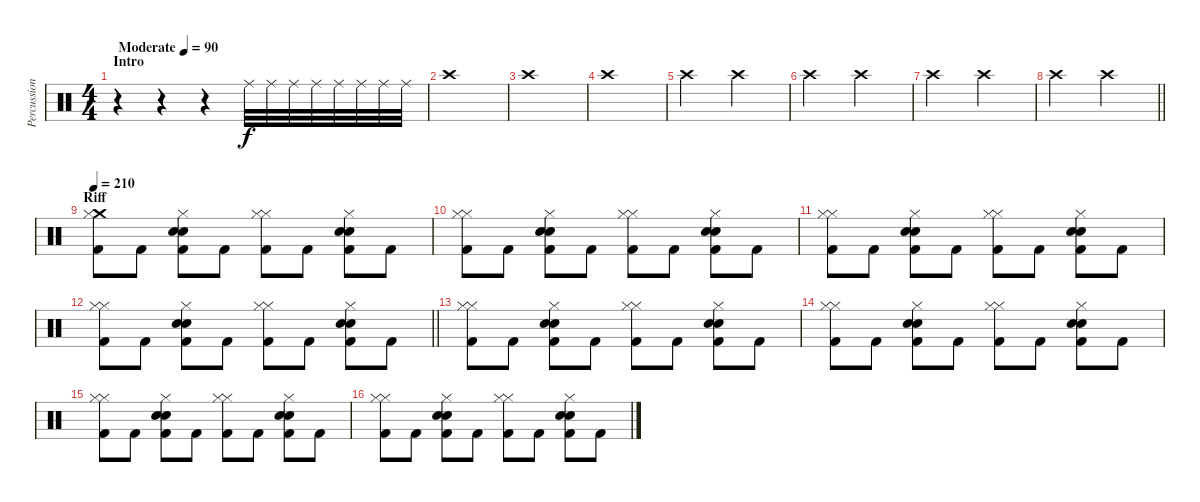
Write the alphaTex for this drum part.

\track ("Percussion" "Percussion") {instrument percussion}
\staff {score}
\articulation defaults
\ts (4 4)
\section ("" "Intro")
\tempo (90 "Moderate")
\clef neutral
\ks c
r.4{dy f} r.4 r.4 "Ride (middle)".32 "Ride (middle)".32 "Ride (middle)".32 "Ride (middle)".32 "Ride (middle)".32 "Ride (middle)".32 "Ride (middle)".32 "Ride (middle)".32 |
"Crash high (hit)".1 |
"Crash high (hit)".1 |
"Crash high (hit)".1 |
"Crash high (hit)".2 "Crash high (hit)".2 |
"Crash high (hit)".2 "Crash high (hit)".2 |
"Crash high (hit)".2 "Crash high (hit)".2 |
\barLineRight lightlight "Crash high (hit)".2 "Crash high (hit)".2
|
\section ("" "Riff")
\tempo 210
("Crash medium (hit)" "Hi-Hat (closed)" "Kick (hit) 2").8 "Kick (hit) 2".8 ("Hi-Hat (closed)" "Snare (hit) 2" "Electric Snare (hit)" "Kick (hit) 2").8 "Kick (hit) 2".8 ("Hi-Hat (closed)" "Hi-Hat (closed)" "Kick (hit) 2").8 "Kick (hit) 2".8 ("Hi-Hat (closed)" "Snare (hit) 2" "Electric Snare (hit)" "Kick (hit) 2").8 "Kick (hit) 2".8 |
("Hi-Hat (closed)" "Hi-Hat (closed)" "Kick (hit) 2").8 "Kick (hit) 2".8 ("Hi-Hat (closed)" "Snare (hit) 2" "Electric Snare (hit)" "Kick (hit) 2").8 "Kick (hit) 2".8 ("Hi-Hat (closed)" "Hi-Hat (closed)" "Kick (hit) 2").8 "Kick (hit) 2".8 ("Hi-Hat (closed)" "Snare (hit) 2" "Electric Snare (hit)" "Kick (hit) 2").8 "Kick (hit) 2".8 |
("Hi-Hat (closed)" "Hi-Hat (closed)" "Kick (hit) 2").8 "Kick (hit) 2".8 ("Hi-Hat (closed)" "Snare (hit) 2" "Electric Snare (hit)" "Kick (hit) 2").8 "Kick (hit) 2".8 ("Hi-Hat (closed)" "Hi-Hat (closed)" "Kick (hit) 2").8 "Kick (hit) 2".8 ("Hi-Hat (closed)" "Snare (hit) 2" "Electric Snare (hit)" "Kick (hit) 2").8 "Kick (hit) 2".8 |
\barLineRight lightlight
("Hi-Hat (closed)" "Hi-Hat (closed)" "Kick (hit) 2").8 "Kick (hit) 2".8 ("Hi-Hat (closed)" "Snare (hit) 2" "Electric Snare (hit)" "Kick (hit) 2").8 "Kick (hit) 2".8 ("Hi-Hat (closed)" "Hi-Hat (closed)" "Kick (hit) 2").8 "Kick (hit) 2".8 ("Hi-Hat (closed)" "Snare (hit) 2" "Electric Snare (hit)" "Kick (hit) 2").8 "Kick (hit) 2".8 |
("Hi-Hat (closed)" "Hi-Hat (closed)" "Kick (hit) 2").8 "Kick (hit) 2".8 ("Hi-Hat (closed)" "Snare (hit) 2" "Electric Snare (hit)" "Kick (hit) 2").8 "Kick (hit) 2".8 ("Hi-Hat (closed)" "Hi-Hat (closed)" "Kick (hit) 2").8 "Kick (hit) 2".8 ("Hi-Hat (closed)" "Snare (hit) 2" "Electric Snare (hit)" "Kick (hit) 2").8 "Kick (hit) 2".8 |
("Hi-Hat (closed)" "Hi-Hat (closed)" "Kick (hit) 2").8 "Kick (hit) 2".8 ("Hi-Hat (closed)" "Snare (hit) 2" "Electric Snare (hit)" "Kick (hit) 2").8 "Kick (hit) 2".8 ("Hi-Hat (closed)" "Hi-Hat (closed)" "Kick (hit) 2").8 "Kick (hit) 2".8 ("Hi-Hat (closed)" "Snare (hit) 2" "Electric Snare (hit)" "Kick (hit) 2").8 "Kick (hit) 2".8 |
("Hi-Hat (closed)" "Hi-Hat (closed)" "Kick (hit) 2").8 "Kick (hit) 2".8 ("Hi-Hat (closed)" "Snare (hit) 2" "Electric Snare (hit)" "Kick (hit) 2").8 "Kick (hit) 2".8 ("Hi-Hat (closed)" "Hi-Hat (closed)" "Kick (hit) 2").8 "Kick (hit) 2".8 ("Hi-Hat (closed)" "Snare (hit) 2" "Electric Snare (hit)" "Kick (hit) 2").8 "Kick (hit) 2".8 |
("Hi-Hat (closed)" "Hi-Hat (closed)" "Kick (hit) 2").8 "Kick (hit) 2".8 ("Hi-Hat (closed)" "Snare (hit) 2" "Electric Snare (hit)" "Kick (hit) 2").8 "Kick (hit) 2".8 ("Hi-Hat (closed)" "Hi-Hat (closed)" "Kick (hit) 2").8 "Kick (hit) 2".8 ("Hi-Hat (closed)" "Snare (hit) 2" "Electric Snare (hit)" "Kick (hit) 2").8 "Kick (hit) 2".8
